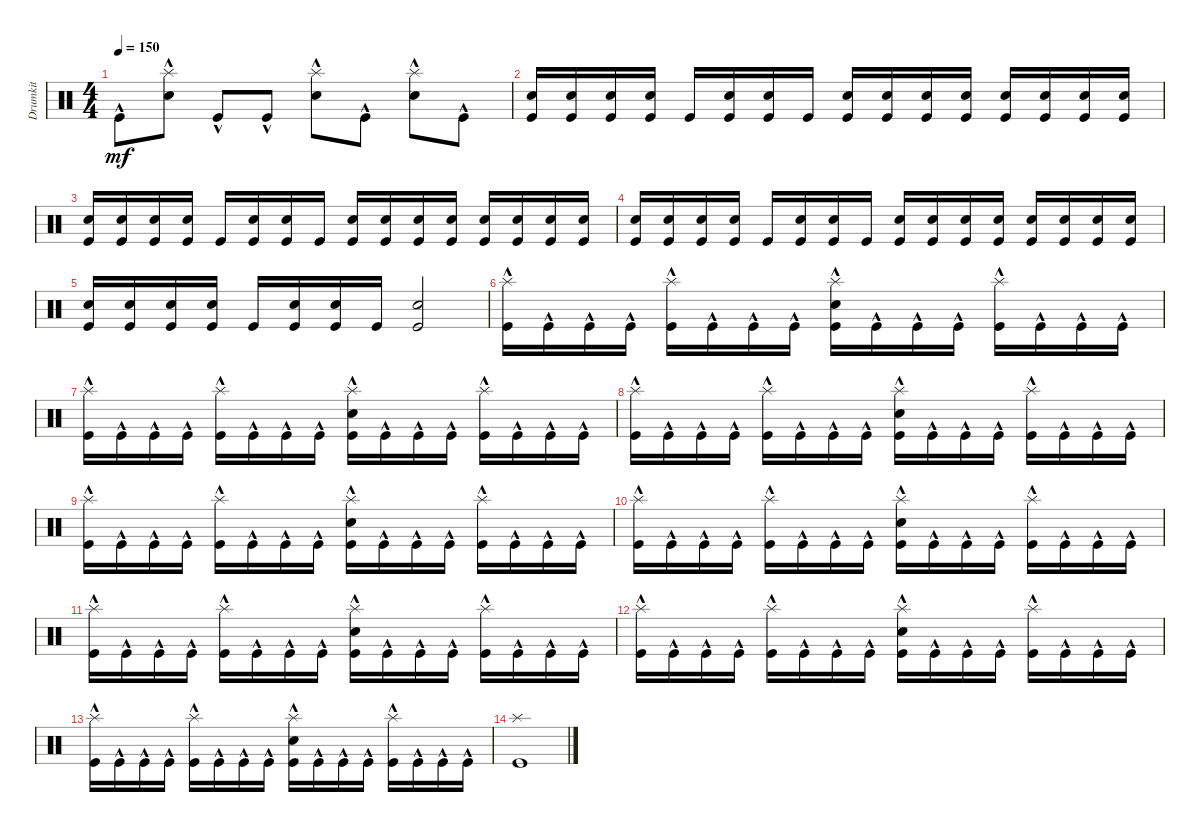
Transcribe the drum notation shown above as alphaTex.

\track ("Drumkit" "Drumkit") {instrument percussion}
\staff {score}
\articulation defaults
\ts (4 4)
\tempo 150
\clef neutral
\ks c "Kick (hit)"{hac}.8{dy mf}
("Snare (hit) 2"{hac} "Splash (hit)"{hac}).8 "Kick (hit)"{hac}.8 "Kick (hit)"{hac}.8 ("Snare (hit) 2"{hac} "Splash (hit)"{hac}).8 "Kick (hit)"{hac}.8 ("Snare (hit) 2"{hac} "Splash (hit)"{hac}).8 "Kick (hit)"{hac}.8 |
("Snare (hit) 2" "Kick (hit)").16 ("Snare (hit) 2" "Kick (hit)").16 ("Snare (hit) 2" "Kick (hit)").16 ("Snare (hit) 2" "Kick (hit)").16 "Kick (hit)".16 ("Snare (hit) 2" "Kick (hit)").16 ("Snare (hit) 2" "Kick (hit)").16 "Kick (hit)".16 ("Snare (hit) 2" "Kick (hit)").16 ("Snare (hit) 2" "Kick (hit)").16 ("Snare (hit) 2" "Kick (hit)").16 ("Snare (hit) 2" "Kick (hit)").16 ("Snare (hit) 2" "Kick (hit)").16 ("Snare (hit) 2" "Kick (hit)").16 ("Snare (hit) 2" "Kick (hit)").16 ("Snare (hit) 2" "Kick (hit)").16 |
("Snare (hit) 2" "Kick (hit)").16 ("Snare (hit) 2" "Kick (hit)").16 ("Snare (hit) 2" "Kick (hit)").16 ("Snare (hit) 2" "Kick (hit)").16 "Kick (hit)".16 ("Snare (hit) 2" "Kick (hit)").16 ("Snare (hit) 2" "Kick (hit)").16 "Kick (hit)".16 ("Snare (hit) 2" "Kick (hit)").16 ("Snare (hit) 2" "Kick (hit)").16 ("Snare (hit) 2" "Kick (hit)").16 ("Snare (hit) 2" "Kick (hit)").16 ("Snare (hit) 2" "Kick (hit)").16 ("Snare (hit) 2" "Kick (hit)").16 ("Snare (hit) 2" "Kick (hit)").16 ("Snare (hit) 2" "Kick (hit)").16 |
("Snare (hit) 2" "Kick (hit)").16 ("Snare (hit) 2" "Kick (hit)").16 ("Snare (hit) 2" "Kick (hit)").16 ("Snare (hit) 2" "Kick (hit)").16 "Kick (hit)".16 ("Snare (hit) 2" "Kick (hit)").16 ("Snare (hit) 2" "Kick (hit)").16 "Kick (hit)".16 ("Snare (hit) 2" "Kick (hit)").16 ("Snare (hit) 2" "Kick (hit)").16 ("Snare (hit) 2" "Kick (hit)").16 ("Snare (hit) 2" "Kick (hit)").16 ("Snare (hit) 2" "Kick (hit)").16 ("Snare (hit) 2" "Kick (hit)").16 ("Snare (hit) 2" "Kick (hit)").16 ("Snare (hit) 2" "Kick (hit)").16 |
("Snare (hit) 2" "Kick (hit)").16 ("Snare (hit) 2" "Kick (hit)").16 ("Snare (hit) 2" "Kick (hit)").16 ("Snare (hit) 2" "Kick (hit)").16 "Kick (hit)".16 ("Snare (hit) 2" "Kick (hit)").16 ("Snare (hit) 2" "Kick (hit)").16 "Kick (hit)".16 ("Snare (hit) 2" "Kick (hit)").2 |
("Kick (hit)"{hac} "Splash (hit)"{hac}).16 "Kick (hit)"{hac}.16 "Kick (hit)"{hac}.16 "Kick (hit)"{hac}.16 ("Kick (hit)"{hac} "Splash (hit)"{hac}).16 "Kick (hit)"{hac}.16 "Kick (hit)"{hac}.16 "Kick (hit)"{hac}.16 ("Kick (hit)"{hac} "Snare (hit) 2"{hac} "Splash (hit)"{hac}).16 "Kick (hit)"{hac}.16 "Kick (hit)"{hac}.16 "Kick (hit)"{hac}.16 ("Kick (hit)"{hac} "Splash (hit)"{hac}).16 "Kick (hit)"{hac}.16 "Kick (hit)"{hac}.16 "Kick (hit)"{hac}.16 |
("Kick (hit)"{hac} "Splash (hit)"{hac}).16 "Kick (hit)"{hac}.16 "Kick (hit)"{hac}.16 "Kick (hit)"{hac}.16 ("Kick (hit)"{hac} "Splash (hit)"{hac}).16 "Kick (hit)"{hac}.16 "Kick (hit)"{hac}.16 "Kick (hit)"{hac}.16 ("Kick (hit)"{hac} "Snare (hit) 2"{hac} "Splash (hit)"{hac}).16 "Kick (hit)"{hac}.16 "Kick (hit)"{hac}.16 "Kick (hit)"{hac}.16 ("Kick (hit)"{hac} "Splash (hit)"{hac}).16 "Kick (hit)"{hac}.16 "Kick (hit)"{hac}.16 "Kick (hit)"{hac}.16 |
("Kick (hit)"{hac} "Splash (hit)"{hac}).16 "Kick (hit)"{hac}.16 "Kick (hit)"{hac}.16 "Kick (hit)"{hac}.16 ("Kick (hit)"{hac} "Splash (hit)"{hac}).16 "Kick (hit)"{hac}.16 "Kick (hit)"{hac}.16 "Kick (hit)"{hac}.16 ("Kick (hit)"{hac} "Snare (hit) 2"{hac} "Splash (hit)"{hac}).16 "Kick (hit)"{hac}.16 "Kick (hit)"{hac}.16 "Kick (hit)"{hac}.16 ("Kick (hit)"{hac} "Splash (hit)"{hac}).16 "Kick (hit)"{hac}.16 "Kick (hit)"{hac}.16 "Kick (hit)"{hac}.16 |
("Kick (hit)"{hac} "Splash (hit)"{hac}).16 "Kick (hit)"{hac}.16 "Kick (hit)"{hac}.16 "Kick (hit)"{hac}.16 ("Kick (hit)"{hac} "Splash (hit)"{hac}).16 "Kick (hit)"{hac}.16 "Kick (hit)"{hac}.16 "Kick (hit)"{hac}.16 ("Kick (hit)"{hac} "Snare (hit) 2"{hac} "Splash (hit)"{hac}).16 "Kick (hit)"{hac}.16 "Kick (hit)"{hac}.16 "Kick (hit)"{hac}.16 ("Kick (hit)"{hac} "Splash (hit)"{hac}).16 "Kick (hit)"{hac}.16 "Kick (hit)"{hac}.16 "Kick (hit)"{hac}.16 |
("Kick (hit)"{hac} "Splash (hit)"{hac}).16 "Kick (hit)"{hac}.16 "Kick (hit)"{hac}.16 "Kick (hit)"{hac}.16 ("Kick (hit)"{hac} "Splash (hit)"{hac}).16 "Kick (hit)"{hac}.16 "Kick (hit)"{hac}.16 "Kick (hit)"{hac}.16 ("Kick (hit)"{hac} "Snare (hit) 2"{hac} "Splash (hit)"{hac}).16 "Kick (hit)"{hac}.16 "Kick (hit)"{hac}.16 "Kick (hit)"{hac}.16 ("Kick (hit)"{hac} "Splash (hit)"{hac}).16 "Kick (hit)"{hac}.16 "Kick (hit)"{hac}.16 "Kick (hit)"{hac}.16 |
("Kick (hit)"{hac} "Splash (hit)"{hac}).16 "Kick (hit)"{hac}.16 "Kick (hit)"{hac}.16 "Kick (hit)"{hac}.16 ("Kick (hit)"{hac} "Splash (hit)"{hac}).16 "Kick (hit)"{hac}.16 "Kick (hit)"{hac}.16 "Kick (hit)"{hac}.16 ("Kick (hit)"{hac} "Snare (hit) 2"{hac} "Splash (hit)"{hac}).16 "Kick (hit)"{hac}.16 "Kick (hit)"{hac}.16 "Kick (hit)"{hac}.16 ("Kick (hit)"{hac} "Splash (hit)"{hac}).16 "Kick (hit)"{hac}.16 "Kick (hit)"{hac}.16 "Kick (hit)"{hac}.16 |
("Kick (hit)"{hac} "Splash (hit)"{hac}).16 "Kick (hit)"{hac}.16 "Kick (hit)"{hac}.16 "Kick (hit)"{hac}.16 ("Kick (hit)"{hac} "Splash (hit)"{hac}).16 "Kick (hit)"{hac}.16 "Kick (hit)"{hac}.16 "Kick (hit)"{hac}.16 ("Kick (hit)"{hac} "Snare (hit) 2"{hac} "Splash (hit)"{hac}).16 "Kick (hit)"{hac}.16 "Kick (hit)"{hac}.16 "Kick (hit)"{hac}.16 ("Kick (hit)"{hac} "Splash (hit)"{hac}).16 "Kick (hit)"{hac}.16 "Kick (hit)"{hac}.16 "Kick (hit)"{hac}.16 |
("Kick (hit)"{hac} "Splash (hit)"{hac}).16 "Kick (hit)"{hac}.16 "Kick (hit)"{hac}.16 "Kick (hit)"{hac}.16 ("Kick (hit)"{hac} "Splash (hit)"{hac}).16 "Kick (hit)"{hac}.16 "Kick (hit)"{hac}.16 "Kick (hit)"{hac}.16 ("Kick (hit)"{hac} "Snare (hit) 2"{hac} "Splash (hit)"{hac}).16 "Kick (hit)"{hac}.16 "Kick (hit)"{hac}.16 "Kick (hit)"{hac}.16 ("Kick (hit)"{hac} "Splash (hit)"{hac}).16 "Kick (hit)"{hac}.16 "Kick (hit)"{hac}.16 "Kick (hit)"{hac}.16 |
("Kick (hit)" "Splash (hit)").1
